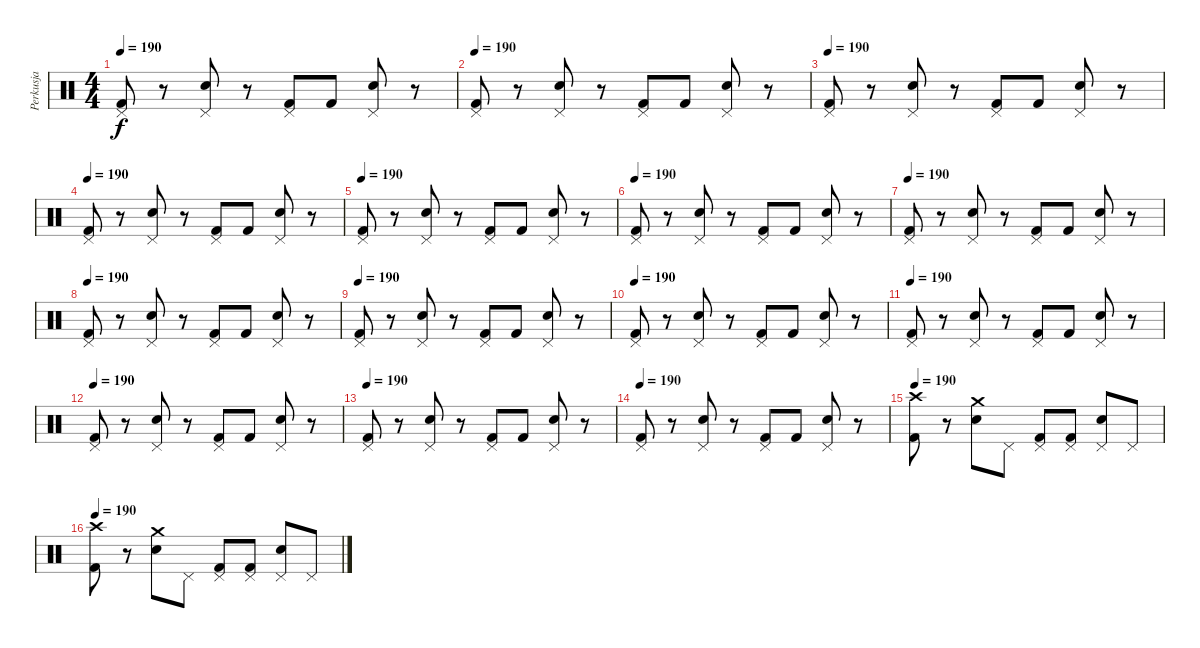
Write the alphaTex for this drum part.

\track ("Perkusja" "Perkusja") {instrument percussion}
\staff {score}
\articulation defaults
\ts (4 4)
\tempo 190
\clef neutral
\ks c
("Pedal Hi-Hat (hit)" "Kick (hit) 2").8{dy f} r.8 ("Pedal Hi-Hat (hit)" "Snare (hit) 2").8 r.8 ("Pedal Hi-Hat (hit)" "Kick (hit) 2").8 "Kick (hit) 2".8 ("Pedal Hi-Hat (hit)" "Snare (hit) 2").8 r.8 |
\tempo 190
("Pedal Hi-Hat (hit)" "Kick (hit) 2").8 r.8 ("Pedal Hi-Hat (hit)" "Snare (hit) 2").8 r.8 ("Pedal Hi-Hat (hit)" "Kick (hit) 2").8 "Kick (hit) 2".8 ("Pedal Hi-Hat (hit)" "Snare (hit) 2").8 r.8 |
\tempo 190
("Pedal Hi-Hat (hit)" "Kick (hit) 2").8 r.8 ("Pedal Hi-Hat (hit)" "Snare (hit) 2").8 r.8 ("Pedal Hi-Hat (hit)" "Kick (hit) 2").8 "Kick (hit) 2".8 ("Pedal Hi-Hat (hit)" "Snare (hit) 2").8 r.8 |
\tempo 190
("Pedal Hi-Hat (hit)" "Kick (hit) 2").8 r.8 ("Pedal Hi-Hat (hit)" "Snare (hit) 2").8 r.8 ("Pedal Hi-Hat (hit)" "Kick (hit) 2").8 "Kick (hit) 2".8 ("Pedal Hi-Hat (hit)" "Snare (hit) 2").8 r.8 |
\tempo 190
("Pedal Hi-Hat (hit)" "Kick (hit) 2").8 r.8 ("Pedal Hi-Hat (hit)" "Snare (hit) 2").8 r.8 ("Pedal Hi-Hat (hit)" "Kick (hit) 2").8 "Kick (hit) 2".8 ("Pedal Hi-Hat (hit)" "Snare (hit) 2").8 r.8 |
\tempo 190
("Pedal Hi-Hat (hit)" "Kick (hit) 2").8 r.8 ("Pedal Hi-Hat (hit)" "Snare (hit) 2").8 r.8 ("Pedal Hi-Hat (hit)" "Kick (hit) 2").8 "Kick (hit) 2".8 ("Pedal Hi-Hat (hit)" "Snare (hit) 2").8 r.8 |
\tempo 190
("Pedal Hi-Hat (hit)" "Kick (hit) 2").8 r.8 ("Pedal Hi-Hat (hit)" "Snare (hit) 2").8 r.8 ("Pedal Hi-Hat (hit)" "Kick (hit) 2").8 "Kick (hit) 2".8 ("Pedal Hi-Hat (hit)" "Snare (hit) 2").8 r.8 |
\tempo 190
("Pedal Hi-Hat (hit)" "Kick (hit) 2").8 r.8 ("Pedal Hi-Hat (hit)" "Snare (hit) 2").8 r.8 ("Pedal Hi-Hat (hit)" "Kick (hit) 2").8 "Kick (hit) 2".8 ("Pedal Hi-Hat (hit)" "Snare (hit) 2").8 r.8 |
\tempo 190
("Pedal Hi-Hat (hit)" "Kick (hit) 2").8 r.8 ("Pedal Hi-Hat (hit)" "Snare (hit) 2").8 r.8 ("Pedal Hi-Hat (hit)" "Kick (hit) 2").8 "Kick (hit) 2".8 ("Pedal Hi-Hat (hit)" "Snare (hit) 2").8 r.8 |
\tempo 190
("Pedal Hi-Hat (hit)" "Kick (hit) 2").8 r.8 ("Pedal Hi-Hat (hit)" "Snare (hit) 2").8 r.8 ("Pedal Hi-Hat (hit)" "Kick (hit) 2").8 "Kick (hit) 2".8 ("Pedal Hi-Hat (hit)" "Snare (hit) 2").8 r.8 |
\tempo 190
("Pedal Hi-Hat (hit)" "Kick (hit) 2").8 r.8 ("Pedal Hi-Hat (hit)" "Snare (hit) 2").8 r.8 ("Pedal Hi-Hat (hit)" "Kick (hit) 2").8 "Kick (hit) 2".8 ("Pedal Hi-Hat (hit)" "Snare (hit) 2").8 r.8 |
\tempo 190
("Pedal Hi-Hat (hit)" "Kick (hit) 2").8 r.8 ("Pedal Hi-Hat (hit)" "Snare (hit) 2").8 r.8 ("Pedal Hi-Hat (hit)" "Kick (hit) 2").8 "Kick (hit) 2".8 ("Pedal Hi-Hat (hit)" "Snare (hit) 2").8 r.8 |
\tempo 190
("Pedal Hi-Hat (hit)" "Kick (hit) 2").8 r.8 ("Pedal Hi-Hat (hit)" "Snare (hit) 2").8 r.8 ("Pedal Hi-Hat (hit)" "Kick (hit) 2").8 "Kick (hit) 2".8 ("Pedal Hi-Hat (hit)" "Snare (hit) 2").8 r.8 |
\tempo 190
("Pedal Hi-Hat (hit)" "Kick (hit) 2").8 r.8 ("Pedal Hi-Hat (hit)" "Snare (hit) 2").8 r.8 ("Pedal Hi-Hat (hit)" "Kick (hit) 2").8 "Kick (hit) 2".8 ("Pedal Hi-Hat (hit)" "Snare (hit) 2").8 r.8 |
\tempo 190
("Crash high (hit)" "Kick (hit) 2").8 r.8 ("Crash medium (hit)" "Snare (hit) 2").8 "Pedal Hi-Hat (hit)".8 ("Pedal Hi-Hat (hit)" "Kick (hit) 2").8 ("Pedal Hi-Hat (hit)" "Kick (hit) 2").8 ("Pedal Hi-Hat (hit)" "Snare (hit) 2").8 "Pedal Hi-Hat (hit)".8 |
\tempo 190
("Crash high (hit)" "Kick (hit) 2").8 r.8 ("Crash medium (hit)" "Snare (hit) 2").8 "Pedal Hi-Hat (hit)".8 ("Pedal Hi-Hat (hit)" "Kick (hit) 2").8 ("Pedal Hi-Hat (hit)" "Kick (hit) 2").8 ("Pedal Hi-Hat (hit)" "Snare (hit) 2").8 "Pedal Hi-Hat (hit)".8
